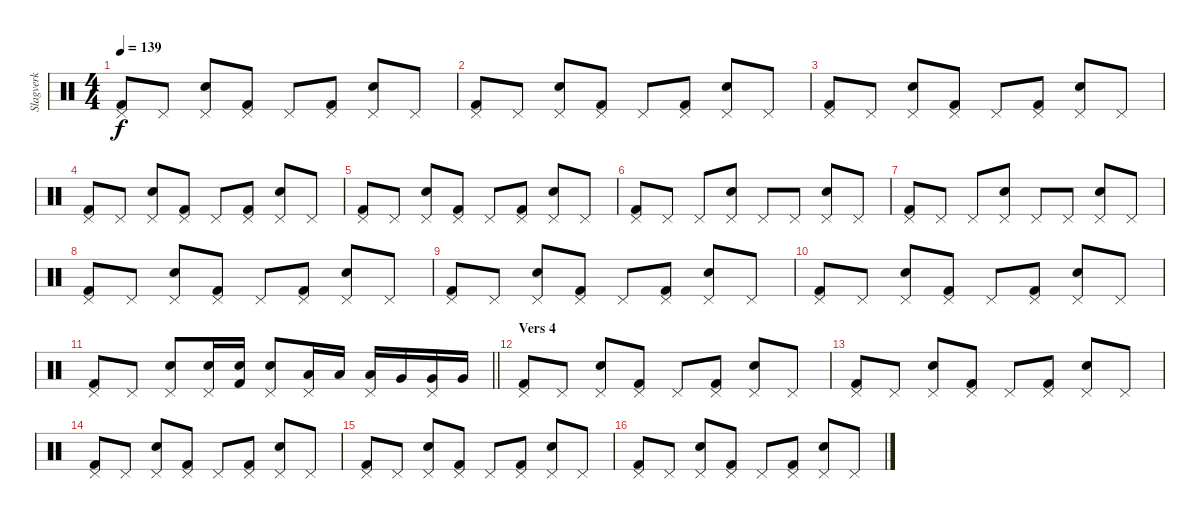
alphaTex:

\track ("Slagverk" "Slagverk") {instrument percussion}
\staff {score}
\articulation defaults
\ts (4 4)
\tempo 139
\clef neutral
\ks c
("Pedal Hi-Hat (hit)" "Kick (hit) 2").8{dy f} "Pedal Hi-Hat (hit)".8 ("Pedal Hi-Hat (hit)" "Snare (hit) 2").8 ("Pedal Hi-Hat (hit)" "Kick (hit) 2").8 "Pedal Hi-Hat (hit)".8 ("Pedal Hi-Hat (hit)" "Kick (hit) 2").8 ("Pedal Hi-Hat (hit)" "Snare (hit) 2").8 "Pedal Hi-Hat (hit)".8 |
("Pedal Hi-Hat (hit)" "Kick (hit) 2").8 "Pedal Hi-Hat (hit)".8 ("Pedal Hi-Hat (hit)" "Snare (hit) 2").8 ("Pedal Hi-Hat (hit)" "Kick (hit) 2").8 "Pedal Hi-Hat (hit)".8 ("Pedal Hi-Hat (hit)" "Kick (hit) 2").8 ("Pedal Hi-Hat (hit)" "Snare (hit) 2").8 "Pedal Hi-Hat (hit)".8 |
("Pedal Hi-Hat (hit)" "Kick (hit) 2").8 "Pedal Hi-Hat (hit)".8 ("Pedal Hi-Hat (hit)" "Snare (hit) 2").8 ("Pedal Hi-Hat (hit)" "Kick (hit) 2").8 "Pedal Hi-Hat (hit)".8 ("Pedal Hi-Hat (hit)" "Kick (hit) 2").8 ("Pedal Hi-Hat (hit)" "Snare (hit) 2").8 "Pedal Hi-Hat (hit)".8 |
("Pedal Hi-Hat (hit)" "Kick (hit) 2").8 "Pedal Hi-Hat (hit)".8 ("Pedal Hi-Hat (hit)" "Snare (hit) 2").8 ("Pedal Hi-Hat (hit)" "Kick (hit) 2").8 "Pedal Hi-Hat (hit)".8 ("Pedal Hi-Hat (hit)" "Kick (hit) 2").8 ("Pedal Hi-Hat (hit)" "Snare (hit) 2").8 "Pedal Hi-Hat (hit)".8 |
("Pedal Hi-Hat (hit)" "Kick (hit) 2").8 "Pedal Hi-Hat (hit)".8 ("Pedal Hi-Hat (hit)" "Snare (hit) 2").8 ("Pedal Hi-Hat (hit)" "Kick (hit) 2").8 "Pedal Hi-Hat (hit)".8 ("Pedal Hi-Hat (hit)" "Kick (hit) 2").8 ("Pedal Hi-Hat (hit)" "Snare (hit) 2").8 "Pedal Hi-Hat (hit)".8 |
("Pedal Hi-Hat (hit)" "Kick (hit) 2").8 "Pedal Hi-Hat (hit)".8 "Pedal Hi-Hat (hit)".8 ("Pedal Hi-Hat (hit)" "Snare (hit) 2").8 "Pedal Hi-Hat (hit)".8 "Pedal Hi-Hat (hit)".8 ("Pedal Hi-Hat (hit)" "Snare (hit) 2").8 "Pedal Hi-Hat (hit)".8 |
("Pedal Hi-Hat (hit)" "Kick (hit) 2").8 "Pedal Hi-Hat (hit)".8 "Pedal Hi-Hat (hit)".8 ("Pedal Hi-Hat (hit)" "Snare (hit) 2").8 "Pedal Hi-Hat (hit)".8 "Pedal Hi-Hat (hit)".8 ("Pedal Hi-Hat (hit)" "Snare (hit) 2").8 "Pedal Hi-Hat (hit)".8 |
("Pedal Hi-Hat (hit)" "Kick (hit) 2").8 "Pedal Hi-Hat (hit)".8 ("Pedal Hi-Hat (hit)" "Snare (hit) 2").8 ("Pedal Hi-Hat (hit)" "Kick (hit) 2").8 "Pedal Hi-Hat (hit)".8 ("Pedal Hi-Hat (hit)" "Kick (hit) 2").8 ("Pedal Hi-Hat (hit)" "Snare (hit) 2").8 "Pedal Hi-Hat (hit)".8 |
("Pedal Hi-Hat (hit)" "Kick (hit) 2").8 "Pedal Hi-Hat (hit)".8 ("Pedal Hi-Hat (hit)" "Snare (hit) 2").8 ("Pedal Hi-Hat (hit)" "Kick (hit) 2").8 "Pedal Hi-Hat (hit)".8 ("Pedal Hi-Hat (hit)" "Kick (hit) 2").8 ("Pedal Hi-Hat (hit)" "Snare (hit) 2").8 "Pedal Hi-Hat (hit)".8 |
("Pedal Hi-Hat (hit)" "Kick (hit) 2").8 "Pedal Hi-Hat (hit)".8 ("Pedal Hi-Hat (hit)" "Snare (hit) 2").8 ("Pedal Hi-Hat (hit)" "Kick (hit) 2").8 "Pedal Hi-Hat (hit)".8 ("Pedal Hi-Hat (hit)" "Kick (hit) 2").8 ("Pedal Hi-Hat (hit)" "Snare (hit) 2").8 "Pedal Hi-Hat (hit)".8 |
\barLineRight lightlight
("Pedal Hi-Hat (hit)" "Kick (hit) 2").8 "Pedal Hi-Hat (hit)".8 ("Pedal Hi-Hat (hit)" "Snare (hit) 2").8 ("Pedal Hi-Hat (hit)" "Snare (hit) 2").16 ("Snare (hit) 2" "Kick (hit) 2").16 ("Pedal Hi-Hat (hit)" "Snare (hit) 2").8 ("Pedal Hi-Hat (hit)" "Low Tom (hit)").16 "Low Tom (hit)".16 ("Pedal Hi-Hat (hit)" "Low Tom (hit)").16 "Very Low Tom (hit)".16 ("Pedal Hi-Hat (hit)" "Very Low Tom (hit)").16 "Very Low Tom (hit)".16 |
\section ("" "Vers 4")
("Pedal Hi-Hat (hit)" "Kick (hit) 2").8 "Pedal Hi-Hat (hit)".8 ("Pedal Hi-Hat (hit)" "Snare (hit) 2").8 ("Pedal Hi-Hat (hit)" "Kick (hit) 2").8 "Pedal Hi-Hat (hit)".8 ("Pedal Hi-Hat (hit)" "Kick (hit) 2").8 ("Pedal Hi-Hat (hit)" "Snare (hit) 2").8 "Pedal Hi-Hat (hit)".8 |
("Pedal Hi-Hat (hit)" "Kick (hit) 2").8 "Pedal Hi-Hat (hit)".8 ("Pedal Hi-Hat (hit)" "Snare (hit) 2").8 ("Pedal Hi-Hat (hit)" "Kick (hit) 2").8 "Pedal Hi-Hat (hit)".8 ("Pedal Hi-Hat (hit)" "Kick (hit) 2").8 ("Pedal Hi-Hat (hit)" "Snare (hit) 2").8 "Pedal Hi-Hat (hit)".8 |
("Pedal Hi-Hat (hit)" "Kick (hit) 2").8 "Pedal Hi-Hat (hit)".8 ("Pedal Hi-Hat (hit)" "Snare (hit) 2").8 ("Pedal Hi-Hat (hit)" "Kick (hit) 2").8 "Pedal Hi-Hat (hit)".8 ("Pedal Hi-Hat (hit)" "Kick (hit) 2").8 ("Pedal Hi-Hat (hit)" "Snare (hit) 2").8 "Pedal Hi-Hat (hit)".8 |
("Pedal Hi-Hat (hit)" "Kick (hit) 2").8 "Pedal Hi-Hat (hit)".8 ("Pedal Hi-Hat (hit)" "Snare (hit) 2").8 ("Pedal Hi-Hat (hit)" "Kick (hit) 2").8 "Pedal Hi-Hat (hit)".8 ("Pedal Hi-Hat (hit)" "Kick (hit) 2").8 ("Pedal Hi-Hat (hit)" "Snare (hit) 2").8 "Pedal Hi-Hat (hit)".8 |
("Pedal Hi-Hat (hit)" "Kick (hit) 2").8 "Pedal Hi-Hat (hit)".8 ("Pedal Hi-Hat (hit)" "Snare (hit) 2").8 ("Pedal Hi-Hat (hit)" "Kick (hit) 2").8 "Pedal Hi-Hat (hit)".8 ("Pedal Hi-Hat (hit)" "Kick (hit) 2").8 ("Pedal Hi-Hat (hit)" "Snare (hit) 2").8 "Pedal Hi-Hat (hit)".8
